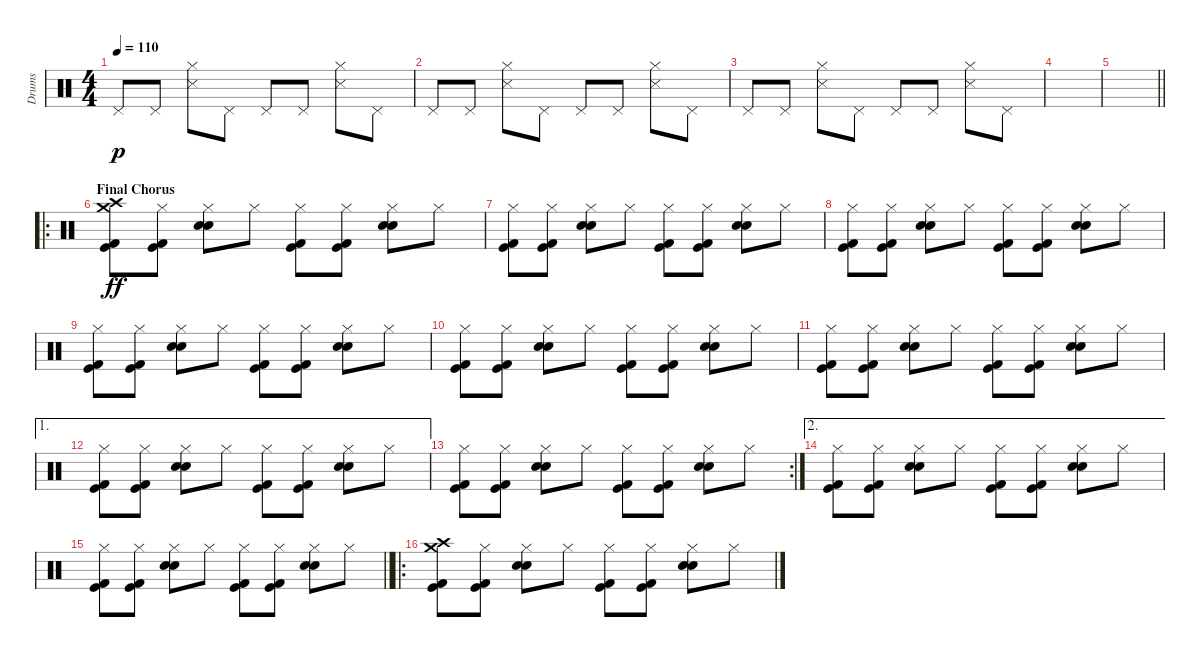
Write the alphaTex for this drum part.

\track ("Drums" "Drums") {instrument percussion}
\staff {score}
\articulation defaults
\ts (4 4)
\tempo 110
\clef neutral
\ks c "Pedal Hi-Hat (hit)".8{dy p} "Pedal Hi-Hat (hit)".8
("Hi-Hat (closed)" "Snare (side stick) 3").8 "Pedal Hi-Hat (hit)".8 "Pedal Hi-Hat (hit)".8 "Pedal Hi-Hat (hit)".8 ("Hi-Hat (closed)" "Snare (side stick) 3").8 "Pedal Hi-Hat (hit)".8 |
"Pedal Hi-Hat (hit)".8 "Pedal Hi-Hat (hit)".8 ("Hi-Hat (closed)" "Snare (side stick) 3").8 "Pedal Hi-Hat (hit)".8 "Pedal Hi-Hat (hit)".8 "Pedal Hi-Hat (hit)".8 ("Hi-Hat (closed)" "Snare (side stick) 3").8 "Pedal Hi-Hat (hit)".8 |
"Pedal Hi-Hat (hit)".8 "Pedal Hi-Hat (hit)".8 ("Hi-Hat (closed)" "Snare (side stick) 3").8 "Pedal Hi-Hat (hit)".8 "Pedal Hi-Hat (hit)".8 "Pedal Hi-Hat (hit)".8 ("Hi-Hat (closed)" "Snare (side stick) 3").8 "Pedal Hi-Hat (hit)".8 |
|
\barLineRight lightlight
|
\ro
\section ("" "Final Chorus")
("Crash high (hit)" "Crash medium (hit)" "Kick (hit)" "Kick (hit) 2").8{dy ff} ("Hi-Hat (closed)" "Kick (hit)" "Kick (hit) 2").8 ("Hi-Hat (closed)" "Electric Snare (hit)" "Snare (hit) 2").8 "Hi-Hat (closed)".8 ("Hi-Hat (closed)" "Kick (hit)" "Kick (hit) 2").8 ("Hi-Hat (closed)" "Kick (hit)" "Kick (hit) 2").8 ("Hi-Hat (closed)" "Electric Snare (hit)" "Snare (hit) 2").8 "Hi-Hat (closed)".8 |
("Hi-Hat (closed)" "Kick (hit)" "Kick (hit) 2").8 ("Hi-Hat (closed)" "Kick (hit)" "Kick (hit) 2").8 ("Hi-Hat (closed)" "Electric Snare (hit)" "Snare (hit) 2").8 "Hi-Hat (closed)".8 ("Hi-Hat (closed)" "Kick (hit)" "Kick (hit) 2").8 ("Hi-Hat (closed)" "Kick (hit)" "Kick (hit) 2").8 ("Hi-Hat (closed)" "Electric Snare (hit)" "Snare (hit) 2").8 "Hi-Hat (closed)".8 |
("Hi-Hat (closed)" "Kick (hit)" "Kick (hit) 2").8 ("Hi-Hat (closed)" "Kick (hit)" "Kick (hit) 2").8 ("Hi-Hat (closed)" "Electric Snare (hit)" "Snare (hit) 2").8 "Hi-Hat (closed)".8 ("Hi-Hat (closed)" "Kick (hit)" "Kick (hit) 2").8 ("Hi-Hat (closed)" "Kick (hit)" "Kick (hit) 2").8 ("Hi-Hat (closed)" "Electric Snare (hit)" "Snare (hit) 2").8 "Hi-Hat (closed)".8 |
("Hi-Hat (closed)" "Kick (hit)" "Kick (hit) 2").8 ("Hi-Hat (closed)" "Kick (hit)" "Kick (hit) 2").8 ("Hi-Hat (closed)" "Electric Snare (hit)" "Snare (hit) 2").8 "Hi-Hat (closed)".8 ("Hi-Hat (closed)" "Kick (hit)" "Kick (hit) 2").8 ("Hi-Hat (closed)" "Kick (hit)" "Kick (hit) 2").8 ("Hi-Hat (closed)" "Electric Snare (hit)" "Snare (hit) 2").8 "Hi-Hat (closed)".8 |
("Hi-Hat (closed)" "Kick (hit)" "Kick (hit) 2").8 ("Hi-Hat (closed)" "Kick (hit)" "Kick (hit) 2").8 ("Hi-Hat (closed)" "Electric Snare (hit)" "Snare (hit) 2").8 "Hi-Hat (closed)".8 ("Hi-Hat (closed)" "Kick (hit)" "Kick (hit) 2").8 ("Hi-Hat (closed)" "Kick (hit)" "Kick (hit) 2").8 ("Hi-Hat (closed)" "Electric Snare (hit)" "Snare (hit) 2").8 "Hi-Hat (closed)".8 |
("Hi-Hat (closed)" "Kick (hit)" "Kick (hit) 2").8 ("Hi-Hat (closed)" "Kick (hit)" "Kick (hit) 2").8 ("Hi-Hat (closed)" "Electric Snare (hit)" "Snare (hit) 2").8 "Hi-Hat (closed)".8 ("Hi-Hat (closed)" "Kick (hit)" "Kick (hit) 2").8 ("Hi-Hat (closed)" "Kick (hit)" "Kick (hit) 2").8 ("Hi-Hat (closed)" "Electric Snare (hit)" "Snare (hit) 2").8 "Hi-Hat (closed)".8 |
\ae 1
("Hi-Hat (closed)" "Kick (hit)" "Kick (hit) 2").8 ("Hi-Hat (closed)" "Kick (hit)" "Kick (hit) 2").8 ("Hi-Hat (closed)" "Electric Snare (hit)" "Snare (hit) 2").8 "Hi-Hat (closed)".8 ("Hi-Hat (closed)" "Kick (hit)" "Kick (hit) 2").8 ("Hi-Hat (closed)" "Kick (hit)" "Kick (hit) 2").8 ("Hi-Hat (closed)" "Electric Snare (hit)" "Snare (hit) 2").8 "Hi-Hat (closed)".8 |
\rc 2
("Hi-Hat (closed)" "Kick (hit)" "Kick (hit) 2").8 ("Hi-Hat (closed)" "Kick (hit)" "Kick (hit) 2").8 ("Hi-Hat (closed)" "Electric Snare (hit)" "Snare (hit) 2").8 "Hi-Hat (closed)".8 ("Hi-Hat (closed)" "Kick (hit)" "Kick (hit) 2").8 ("Hi-Hat (closed)" "Kick (hit)" "Kick (hit) 2").8 ("Hi-Hat (closed)" "Electric Snare (hit)" "Snare (hit) 2").8 "Hi-Hat (closed)".8 |
\ae 2
("Hi-Hat (closed)" "Kick (hit)" "Kick (hit) 2").8 ("Hi-Hat (closed)" "Kick (hit)" "Kick (hit) 2").8 ("Hi-Hat (closed)" "Electric Snare (hit)" "Snare (hit) 2").8 "Hi-Hat (closed)".8 ("Hi-Hat (closed)" "Kick (hit)" "Kick (hit) 2").8 ("Hi-Hat (closed)" "Kick (hit)" "Kick (hit) 2").8 ("Hi-Hat (closed)" "Electric Snare (hit)" "Snare (hit) 2").8 "Hi-Hat (closed)".8 |
\barLineRight lightlight
("Hi-Hat (closed)" "Kick (hit)" "Kick (hit) 2").8 ("Hi-Hat (closed)" "Kick (hit)" "Kick (hit) 2").8 ("Hi-Hat (closed)" "Electric Snare (hit)" "Snare (hit) 2").8 "Hi-Hat (closed)".8 ("Hi-Hat (closed)" "Kick (hit)" "Kick (hit) 2").8 ("Hi-Hat (closed)" "Kick (hit)" "Kick (hit) 2").8 ("Hi-Hat (closed)" "Electric Snare (hit)" "Snare (hit) 2").8 "Hi-Hat (closed)".8 |
\ro
("Crash high (hit)" "Crash medium (hit)" "Kick (hit)" "Kick (hit) 2").8 ("Hi-Hat (closed)" "Kick (hit)" "Kick (hit) 2").8 ("Hi-Hat (closed)" "Electric Snare (hit)" "Snare (hit) 2").8 "Hi-Hat (closed)".8 ("Hi-Hat (closed)" "Kick (hit)" "Kick (hit) 2").8 ("Hi-Hat (closed)" "Kick (hit)" "Kick (hit) 2").8 ("Hi-Hat (closed)" "Electric Snare (hit)" "Snare (hit) 2").8 "Hi-Hat (closed)".8
